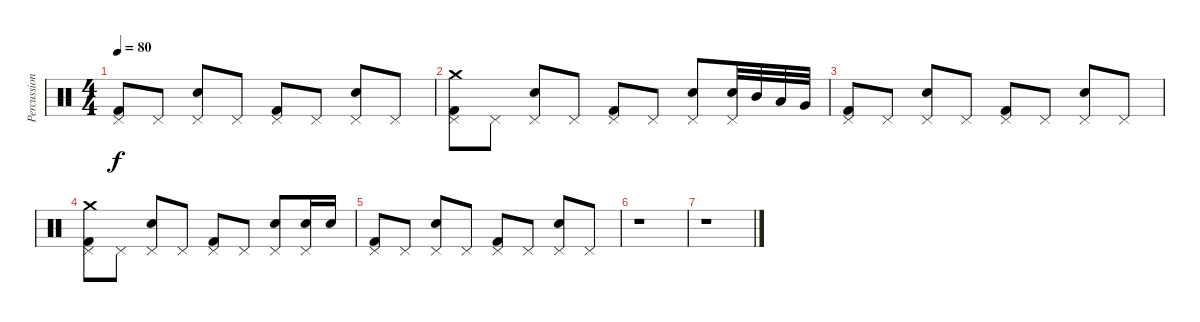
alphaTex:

\track ("Percussion" "Percussion") {instrument percussion}
\staff {score}
\articulation defaults
\ts (4 4)
\tempo 80
\clef neutral
\ks c
("Kick (hit) 2" "Pedal Hi-Hat (hit)").8{dy f} "Pedal Hi-Hat (hit)".8 ("Pedal Hi-Hat (hit)" "Electric Snare (hit)").8 "Pedal Hi-Hat (hit)".8 ("Pedal Hi-Hat (hit)" "Kick (hit) 2").8 "Pedal Hi-Hat (hit)".8 ("Pedal Hi-Hat (hit)" "Electric Snare (hit)").8 "Pedal Hi-Hat (hit)".8 |
("Pedal Hi-Hat (hit)" "Kick (hit) 2" "Crash medium (hit)").8 "Pedal Hi-Hat (hit)".8 ("Electric Snare (hit)" "Pedal Hi-Hat (hit)").8 "Pedal Hi-Hat (hit)".8 ("Pedal Hi-Hat (hit)" "Kick (hit) 2").8 "Pedal Hi-Hat (hit)".8 ("Pedal Hi-Hat (hit)" "Electric Snare (hit)").8 ("Pedal Hi-Hat (hit)" "Electric Snare (hit)").32 "Mid Tom (hit)".32 "Low Tom (hit)".32 "Very Low Tom (hit)".32 |
("Pedal Hi-Hat (hit)" "Kick (hit) 2").8 "Pedal Hi-Hat (hit)".8 ("Pedal Hi-Hat (hit)" "Electric Snare (hit)").8 "Pedal Hi-Hat (hit)".8 ("Kick (hit) 2" "Pedal Hi-Hat (hit)").8 "Pedal Hi-Hat (hit)".8 ("Electric Snare (hit)" "Pedal Hi-Hat (hit)").8 "Pedal Hi-Hat (hit)".8 |
("Kick (hit) 2" "Pedal Hi-Hat (hit)" "Crash medium (hit)").8 "Pedal Hi-Hat (hit)".8 ("Electric Snare (hit)" "Pedal Hi-Hat (hit)").8 "Pedal Hi-Hat (hit)".8 ("Kick (hit) 2" "Pedal Hi-Hat (hit)").8 "Pedal Hi-Hat (hit)".8 ("Electric Snare (hit)" "Pedal Hi-Hat (hit)").8 ("Electric Snare (hit)" "Pedal Hi-Hat (hit)").16 "Electric Snare (hit)".16 |
("Kick (hit) 2" "Pedal Hi-Hat (hit)").8 "Pedal Hi-Hat (hit)".8 ("Pedal Hi-Hat (hit)" "Electric Snare (hit)").8 "Pedal Hi-Hat (hit)".8 ("Pedal Hi-Hat (hit)" "Kick (hit) 2").8 "Pedal Hi-Hat (hit)".8 ("Pedal Hi-Hat (hit)" "Electric Snare (hit)").8 "Pedal Hi-Hat (hit)".8 |
r.1 |
r.1
